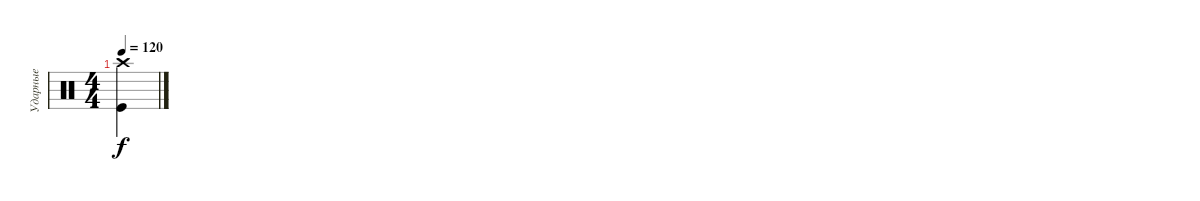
\track ("Ударные" "Ударные") {instrument percussion}
\staff {score}
\articulation defaults
\ts (4 4)
\tempo 120
\clef neutral
\ks c
("Kick (hit)" "Crash high (hit)").4{dy f}
